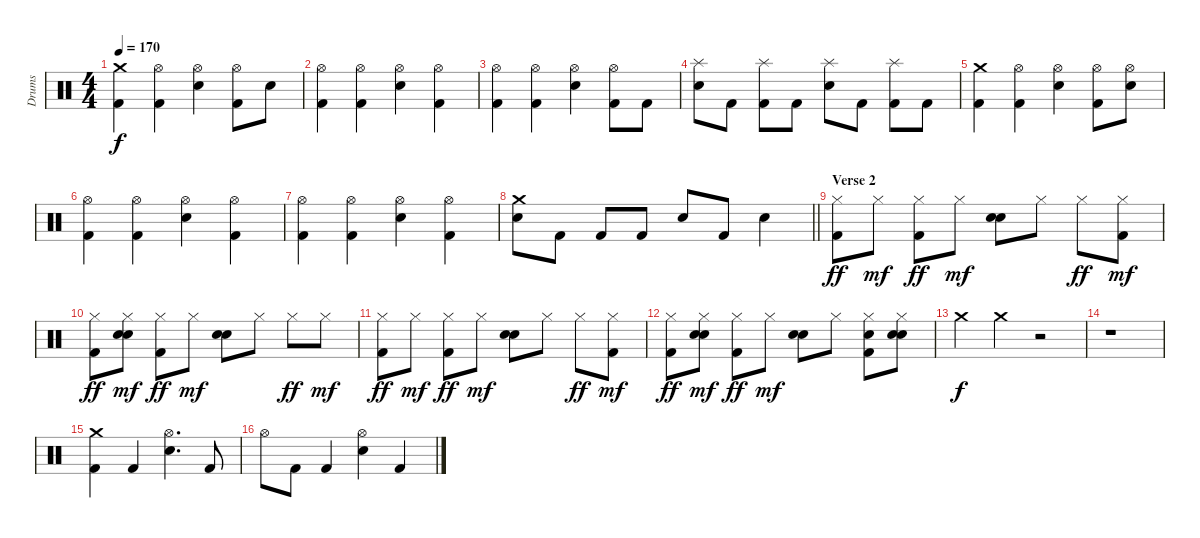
\track ("Drums" "Drums") {instrument percussion}
\staff {score}
\articulation defaults
\ts (4 4)
\tempo 170
\clef neutral
\ks c
("Crash medium (hit)" "Kick (hit) 2").4{dy f} ("Hi-Hat (open)" "Kick (hit) 2").4 ("Hi-Hat (open)" "Snare (hit) 2").4 ("Hi-Hat (open)" "Kick (hit) 2").8 "Snare (hit) 2".8 |
("Hi-Hat (open)" "Kick (hit) 2").4 ("Hi-Hat (open)" "Kick (hit) 2").4 ("Hi-Hat (open)" "Snare (hit) 2").4 ("Hi-Hat (open)" "Kick (hit) 2").4 |
("Hi-Hat (open)" "Kick (hit) 2").4 ("Hi-Hat (open)" "Kick (hit) 2").4 ("Hi-Hat (open)" "Snare (hit) 2").4 ("Hi-Hat (open)" "Kick (hit) 2").8 "Kick (hit) 2".8 |
("Splash (hit)" "Snare (hit) 2").8 "Kick (hit) 2".8 ("Splash (hit)" "Kick (hit) 2").8 "Kick (hit) 2".8 ("Splash (hit)" "Snare (hit) 2").8 "Kick (hit) 2".8 ("Splash (hit)" "Kick (hit) 2").8 "Kick (hit) 2".8 |
("Crash medium (hit)" "Kick (hit) 2").4 ("Hi-Hat (open)" "Kick (hit) 2").4 ("Hi-Hat (open)" "Snare (hit) 2").4 ("Hi-Hat (open)" "Kick (hit) 2").8 ("Hi-Hat (open)" "Snare (hit) 2").8 |
("Hi-Hat (open)" "Kick (hit) 2").4 ("Hi-Hat (open)" "Kick (hit) 2").4 ("Hi-Hat (open)" "Snare (hit) 2").4 ("Hi-Hat (open)" "Kick (hit) 2").4 |
("Hi-Hat (open)" "Kick (hit) 2").4 ("Hi-Hat (open)" "Kick (hit) 2").4 ("Hi-Hat (open)" "Snare (hit) 2").4 ("Hi-Hat (open)" "Kick (hit) 2").4 |
\barLineRight lightlight
("Crash medium (hit)" "Snare (hit) 2").8 "Kick (hit) 2".8 "Kick (hit) 2".8 "Kick (hit) 2".8 "Snare (hit) 2".8 "Kick (hit) 2".8 "Snare (hit) 2".4 |
\section ("" "Verse 2")
("Hi-Hat (closed)" "Kick (hit) 2").8{dy ff volume 16} "Hi-Hat (closed)".8{dy mf} ("Hi-Hat (closed)" "Kick (hit) 2").8{dy ff} "Hi-Hat (closed)".8{dy mf} ("Hand Clap (hit)" "Snare (hit) 2").8 "Hi-Hat (closed)".8 "Hi-Hat (closed)".8{dy ff} ("Hi-Hat (closed)" "Kick (hit) 2").8{dy mf} |
("Hi-Hat (closed)" "Kick (hit) 2").8{dy ff} ("Hi-Hat (closed)" "Hand Clap (hit)" "Snare (hit) 2").8{dy mf} ("Hi-Hat (closed)" "Kick (hit) 2").8{dy ff} "Hi-Hat (closed)".8{dy mf} ("Hand Clap (hit)" "Snare (hit) 2").8 "Hi-Hat (closed)".8 "Hi-Hat (closed)".8{dy ff} "Hi-Hat (closed)".8{dy mf} |
("Hi-Hat (closed)" "Kick (hit) 2").8{dy ff} "Hi-Hat (closed)".8{dy mf} ("Hi-Hat (closed)" "Kick (hit) 2").8{dy ff} "Hi-Hat (closed)".8{dy mf} ("Hand Clap (hit)" "Snare (hit) 2").8 "Hi-Hat (closed)".8 "Hi-Hat (closed)".8{dy ff} ("Hi-Hat (closed)" "Kick (hit) 2").8{dy mf} |
("Hi-Hat (closed)" "Kick (hit) 2").8{dy ff} ("Hi-Hat (closed)" "Hand Clap (hit)" "Snare (hit) 2").8{dy mf} ("Hi-Hat (closed)" "Kick (hit) 2").8{dy ff} "Hi-Hat (closed)".8{dy mf} ("Hand Clap (hit)" "Snare (hit) 2").8 "Hi-Hat (closed)".8 ("Hi-Hat (closed)" "Snare (hit) 2" "Kick (hit) 2").8 ("Hi-Hat (closed)" "Hand Clap (hit)" "Snare (hit) 2").8 |
"Crash medium (hit)".4{dy f} "Crash medium (hit)".4 r.2 |
r.1 |
("Crash medium (hit)" "Kick (hit) 2").4 "Kick (hit) 2".4 ("Hi-Hat (open)" "Snare (hit) 2").4{d} "Kick (hit) 2".8 |
"Hi-Hat (open)".8 "Kick (hit) 2".8 "Kick (hit) 2".4 ("Hi-Hat (open)" "Snare (hit) 2").4 "Kick (hit) 2".4
